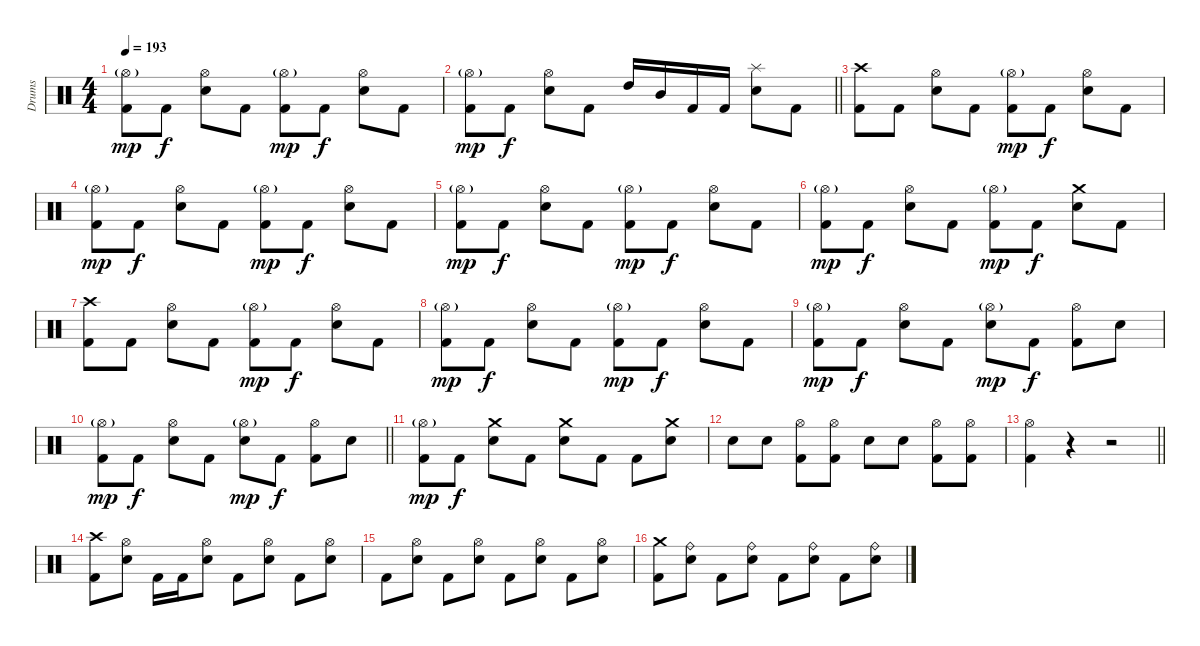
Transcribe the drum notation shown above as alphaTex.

\track ("Drums" "Drums") {instrument percussion}
\staff {score}
\articulation defaults
\ts (4 4)
\tempo 193
\clef neutral
\ks c
("Hi-Hat (open)"{g} "Kick (hit) 2").8{dy mp} "Kick (hit) 2".8{dy f} ("Hi-Hat (open)" "Electric Snare (hit)").8 "Kick (hit) 2".8 ("Hi-Hat (open)"{g} "Kick (hit) 2").8{dy mp} "Kick (hit) 2".8{dy f} ("Hi-Hat (open)" "Electric Snare (hit)").8 "Kick (hit) 2".8 |
\barLineRight lightlight
("Hi-Hat (open)"{g} "Kick (hit) 2").8{dy mp} "Kick (hit) 2".8{dy f} ("Hi-Hat (open)" "Electric Snare (hit)").8 "Kick (hit) 2".8 "High Tom (hit)".16 "Mid Tom (hit)".16 "Kick (hit) 2".16 "Kick (hit) 2".16 ("Splash (hit)" "Electric Snare (hit)").8 "Kick (hit) 2".8 |
("Crash high (hit)" "Kick (hit) 2").8 "Kick (hit) 2".8 ("Hi-Hat (open)" "Electric Snare (hit)").8 "Kick (hit) 2".8 ("Hi-Hat (open)"{g} "Kick (hit) 2").8{dy mp} "Kick (hit) 2".8{dy f} ("Hi-Hat (open)" "Electric Snare (hit)").8 "Kick (hit) 2".8 |
("Hi-Hat (open)"{g} "Kick (hit) 2").8{dy mp} "Kick (hit) 2".8{dy f} ("Hi-Hat (open)" "Electric Snare (hit)").8 "Kick (hit) 2".8 ("Hi-Hat (open)"{g} "Kick (hit) 2").8{dy mp} "Kick (hit) 2".8{dy f} ("Hi-Hat (open)" "Electric Snare (hit)").8 "Kick (hit) 2".8 |
("Hi-Hat (open)"{g} "Kick (hit) 2").8{dy mp} "Kick (hit) 2".8{dy f} ("Hi-Hat (open)" "Electric Snare (hit)").8 "Kick (hit) 2".8 ("Hi-Hat (open)"{g} "Kick (hit) 2").8{dy mp} "Kick (hit) 2".8{dy f} ("Hi-Hat (open)" "Electric Snare (hit)").8 "Kick (hit) 2".8 |
("Hi-Hat (open)"{g} "Kick (hit) 2").8{dy mp} "Kick (hit) 2".8{dy f} ("Hi-Hat (open)" "Electric Snare (hit)").8 "Kick (hit) 2".8 ("Hi-Hat (open)"{g} "Kick (hit) 2").8{dy mp} "Kick (hit) 2".8{dy f} ("Crash medium (hit)" "Electric Snare (hit)").8 "Kick (hit) 2".8 |
("Crash high (hit)" "Kick (hit) 2").8 "Kick (hit) 2".8 ("Hi-Hat (open)" "Electric Snare (hit)").8 "Kick (hit) 2".8 ("Hi-Hat (open)"{g} "Kick (hit) 2").8{dy mp} "Kick (hit) 2".8{dy f} ("Hi-Hat (open)" "Electric Snare (hit)").8 "Kick (hit) 2".8 |
("Hi-Hat (open)"{g} "Kick (hit) 2").8{dy mp} "Kick (hit) 2".8{dy f} ("Hi-Hat (open)" "Electric Snare (hit)").8 "Kick (hit) 2".8 ("Hi-Hat (open)"{g} "Kick (hit) 2").8{dy mp} "Kick (hit) 2".8{dy f} ("Hi-Hat (open)" "Electric Snare (hit)").8 "Kick (hit) 2".8 |
("Hi-Hat (open)"{g} "Kick (hit) 2").8{dy mp} "Kick (hit) 2".8{dy f} ("Hi-Hat (open)" "Electric Snare (hit)").8 "Kick (hit) 2".8 ("Hi-Hat (open)"{g} "Electric Snare (hit)").8{dy mp} "Kick (hit) 2".8{dy f} ("Hi-Hat (open)" "Kick (hit) 2").8 "Electric Snare (hit)".8 |
\barLineRight lightlight
("Hi-Hat (open)"{g} "Kick (hit) 2").8{dy mp} "Kick (hit) 2".8{dy f} ("Hi-Hat (open)" "Electric Snare (hit)").8 "Kick (hit) 2".8 ("Hi-Hat (open)"{g} "Electric Snare (hit)").8{dy mp} "Kick (hit) 2".8{dy f} ("Hi-Hat (open)" "Kick (hit) 2").8 "Electric Snare (hit)".8 |
("Hi-Hat (open)"{g} "Kick (hit) 2").8{dy mp} "Kick (hit) 2".8{dy f} ("Crash medium (hit)" "Electric Snare (hit)").8 "Kick (hit) 2".8 ("Crash medium (hit)" "Electric Snare (hit)").8 "Kick (hit) 2".8 "Kick (hit) 2".8 ("Crash medium (hit)" "Electric Snare (hit)").8 |
"Electric Snare (hit)".8 "Electric Snare (hit)".8 ("Hi-Hat (open)" "Kick (hit) 2").8 ("Hi-Hat (open)" "Kick (hit) 2").8 "Electric Snare (hit)".8 "Electric Snare (hit)".8 ("Hi-Hat (open)" "Kick (hit) 2").8 ("Hi-Hat (open)" "Kick (hit) 2").8 |
\barLineRight lightlight
("Hi-Hat (open)" "Kick (hit) 2").4 r.4 r.2 |
("Crash high (hit)" "Kick (hit) 2").8 ("Hi-Hat (open)" "Electric Snare (hit)").8 "Kick (hit) 2".16 "Kick (hit) 2".16 ("Hi-Hat (open)" "Electric Snare (hit)").8 "Kick (hit) 2".8 ("Hi-Hat (open)" "Electric Snare (hit)").8 "Kick (hit) 2".8 ("Hi-Hat (open)" "Electric Snare (hit)").8 |
"Kick (hit) 2".8 ("Hi-Hat (open)" "Electric Snare (hit)").8 "Kick (hit) 2".8 ("Hi-Hat (open)" "Electric Snare (hit)").8 "Kick (hit) 2".8 ("Hi-Hat (open)" "Electric Snare (hit)").8 "Kick (hit) 2".8 ("Hi-Hat (open)" "Electric Snare (hit)").8 |
("Crash medium (hit)" "Kick (hit) 2").8 ("Ride (bell)" "Electric Snare (hit)").8 "Kick (hit) 2".8 ("Ride (bell)" "Electric Snare (hit)").8 "Kick (hit) 2".8 ("Ride (bell)" "Electric Snare (hit)").8 "Kick (hit) 2".8 ("Ride (bell)" "Electric Snare (hit)").8
